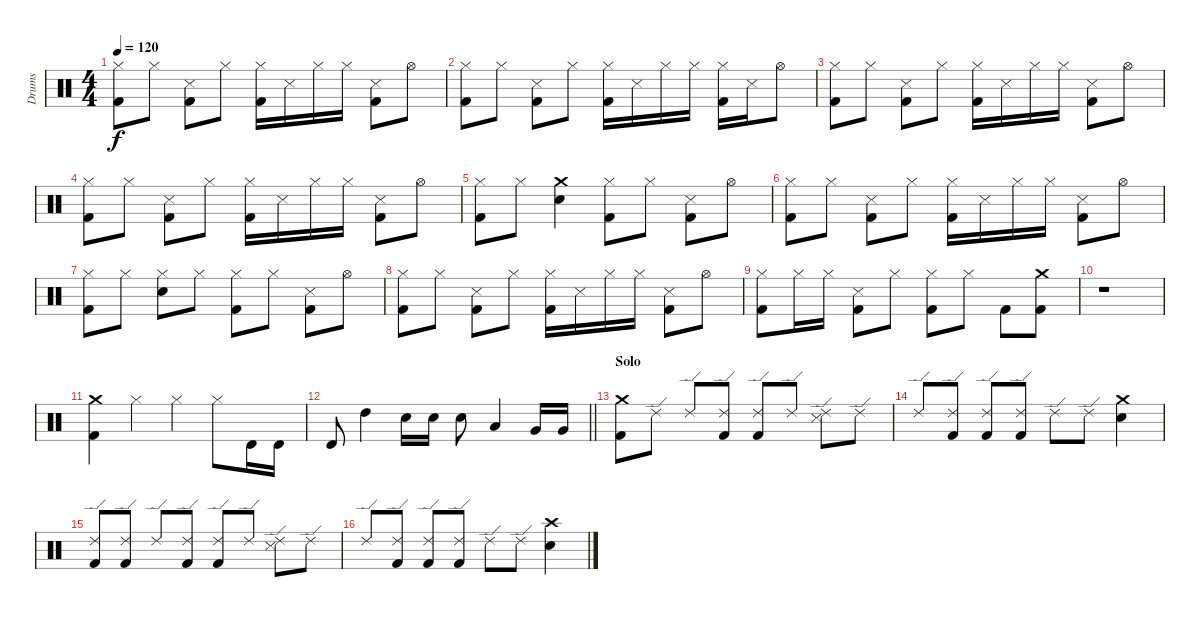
\track ("Drums" "Drums") {instrument percussion}
\staff {score}
\articulation defaults
\ts (4 4)
\tempo 120
\clef neutral
\ks c
("Hi-Hat (closed)" "Kick (hit) 2").8{dy f} "Hi-Hat (closed)".8 ("Snare (side stick) 3" "Kick (hit) 2").8 "Hi-Hat (closed)".8 ("Hi-Hat (closed)" "Kick (hit) 2").16 "Snare (side stick) 3".16 "Hi-Hat (closed)".16 "Hi-Hat (closed)".16 ("Snare (side stick) 3" "Kick (hit) 2").8 "Hi-Hat (open)".8 |
("Hi-Hat (closed)" "Kick (hit) 2").8 "Hi-Hat (closed)".8 ("Snare (side stick) 3" "Kick (hit) 2").8 "Hi-Hat (closed)".8 ("Hi-Hat (closed)" "Kick (hit) 2").16 "Snare (side stick) 3".16 "Hi-Hat (closed)".16 "Hi-Hat (closed)".16 ("Hi-Hat (closed)" "Kick (hit) 2").16 "Snare (side stick) 3".16 "Hi-Hat (open)".8 |
("Hi-Hat (closed)" "Kick (hit) 2").8 "Hi-Hat (closed)".8 ("Snare (side stick) 3" "Kick (hit) 2").8 "Hi-Hat (closed)".8 ("Hi-Hat (closed)" "Kick (hit) 2").16 "Snare (side stick) 3".16 "Hi-Hat (closed)".16 "Hi-Hat (closed)".16 ("Snare (side stick) 3" "Kick (hit) 2").8 "Hi-Hat (open)".8 |
("Hi-Hat (closed)" "Kick (hit) 2").8 "Hi-Hat (closed)".8 ("Snare (side stick) 3" "Kick (hit) 2").8 "Hi-Hat (closed)".8 ("Hi-Hat (closed)" "Kick (hit) 2").16 "Snare (side stick) 3".16 "Hi-Hat (closed)".16 "Hi-Hat (closed)".16 ("Snare (side stick) 3" "Kick (hit) 2").8 "Hi-Hat (open)".8 |
("Hi-Hat (closed)" "Kick (hit) 2").8 "Hi-Hat (closed)".8 ("Crash medium (hit)" "Snare (hit) 2").4 ("Hi-Hat (closed)" "Kick (hit) 2").8 "Hi-Hat (closed)".8 ("Snare (side stick) 3" "Kick (hit) 2").8 "Hi-Hat (open)".8 |
("Hi-Hat (closed)" "Kick (hit) 2").8 "Hi-Hat (closed)".8 ("Snare (side stick) 3" "Kick (hit) 2").8 "Hi-Hat (closed)".8 ("Hi-Hat (closed)" "Kick (hit) 2").16 "Snare (side stick) 3".16 "Hi-Hat (closed)".16 "Hi-Hat (closed)".16 ("Snare (side stick) 3" "Kick (hit) 2").8 "Hi-Hat (open)".8 |
("Hi-Hat (closed)" "Kick (hit) 2").8 "Hi-Hat (closed)".8 ("Hi-Hat (closed)" "Snare (hit) 2").8 "Hi-Hat (closed)".8 ("Hi-Hat (closed)" "Kick (hit) 2").8 "Hi-Hat (closed)".8 ("Snare (side stick) 3" "Kick (hit) 2").8 "Hi-Hat (open)".8 |
("Hi-Hat (closed)" "Kick (hit) 2").8 "Hi-Hat (closed)".8 ("Snare (side stick) 3" "Kick (hit) 2").8 "Hi-Hat (closed)".8 ("Hi-Hat (closed)" "Kick (hit) 2").16 "Snare (side stick) 3".16 "Hi-Hat (closed)".16 "Hi-Hat (closed)".16 ("Snare (side stick) 3" "Kick (hit) 2").8 "Hi-Hat (open)".8 |
("Hi-Hat (closed)" "Kick (hit) 2").8 "Hi-Hat (closed)".16 "Hi-Hat (closed)".16 ("Snare (side stick) 3" "Kick (hit) 2").8 "Hi-Hat (closed)".8 ("Hi-Hat (closed)" "Kick (hit) 2").8 "Hi-Hat (closed)".8 "Kick (hit) 2".8 ("Crash medium (hit)" "Kick (hit) 2").8 |
r.1 |
("Crash medium (hit)" "Kick (hit) 2").4 "Hi-Hat (closed)".4 "Hi-Hat (closed)".4 "Hi-Hat (closed)".8 "Timbale high (hit)".16 "Timbale high (hit)".16 |
\barLineRight lightlight "Timbale high (hit)".8 "High Tom (hit)".4 "Snare (hit) 2".16 "Snare (hit) 2".16 "Snare (hit) 2".8 "Low Tom (hit)".4 "Very Low Tom (hit)".16 "Very Low Tom (hit)".16
|
\section ("" "Solo")
("Crash medium (hit)" "Kick (hit) 2").8 "Ride (edge) 2".8 "Ride (edge) 2".8 ("Ride (edge) 2" "Kick (hit) 2").8 ("Ride (edge) 2" "Kick (hit) 2").8 "Ride (edge) 2".8 ("Ride (edge) 2" "Snare (side stick) 3").8 "Ride (edge) 2".8 |
"Ride (edge) 2".8 ("Ride (edge) 2" "Kick (hit) 2").8 ("Ride (edge) 2" "Kick (hit) 2").8 ("Ride (edge) 2" "Kick (hit) 2").8 "Ride (edge) 2".8 "Ride (edge) 2".8 ("Crash medium (hit)" "Snare (hit) 2").4 |
("Ride (edge) 2" "Kick (hit) 2").8 ("Ride (edge) 2" "Kick (hit) 2").8 "Ride (edge) 2".8 ("Ride (edge) 2" "Kick (hit) 2").8 ("Ride (edge) 2" "Kick (hit) 2").8 "Ride (edge) 2".8 ("Ride (edge) 2" "Snare (side stick) 3").8 "Ride (edge) 2".8 |
"Ride (edge) 2".8 ("Ride (edge) 2" "Kick (hit) 2").8 ("Ride (edge) 2" "Kick (hit) 2").8 ("Ride (edge) 2" "Kick (hit) 2").8 "Ride (edge) 2".8 "Ride (edge) 2".8 ("Crash high (hit)" "Snare (hit) 2").4
